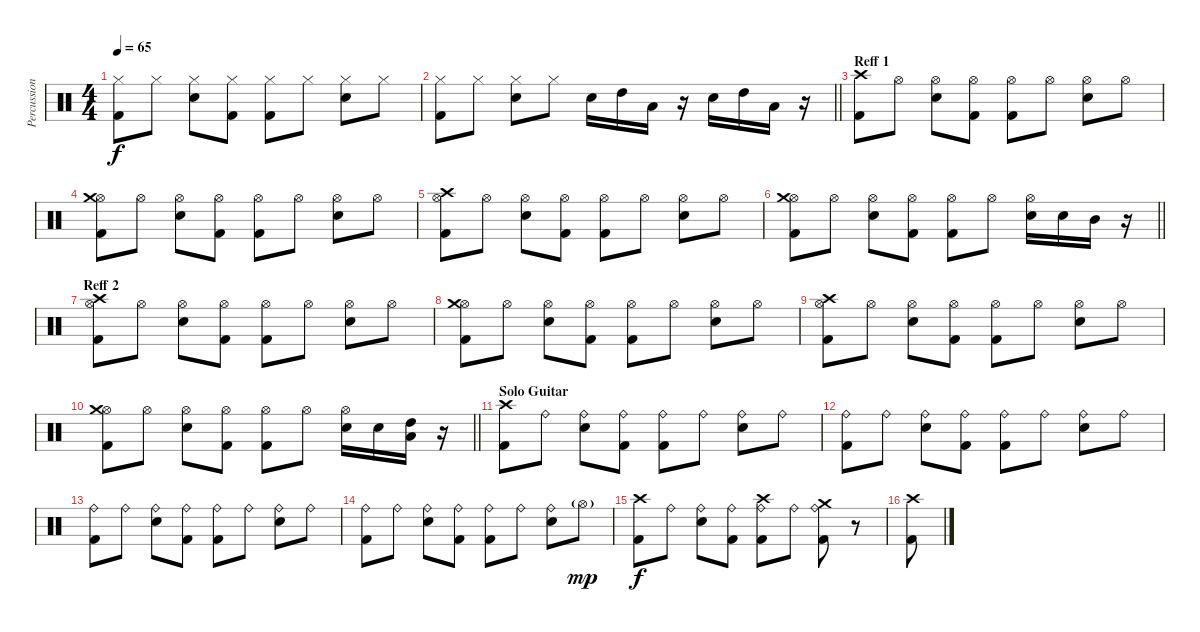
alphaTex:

\track ("Percussion" "Percussion") {instrument percussion}
\staff {score}
\articulation defaults
\ts (4 4)
\tempo 65
\clef neutral
\ks c
("Hi-Hat (closed)" "Kick (hit) 2").8{dy f} "Hi-Hat (closed)".8 ("Hi-Hat (closed)" "Electric Snare (hit)").8 ("Hi-Hat (closed)" "Kick (hit) 2").8 ("Hi-Hat (closed)" "Kick (hit) 2").8 "Hi-Hat (closed)".8 ("Hi-Hat (closed)" "Electric Snare (hit)").8 "Hi-Hat (closed)".8 |
\barLineRight lightlight
("Hi-Hat (closed)" "Kick (hit) 2").8 "Hi-Hat (closed)".8 ("Hi-Hat (closed)" "Electric Snare (hit)").8 "Hi-Hat (closed)".8 "Electric Snare (hit)".16 "High Tom (hit)".16 "Low Tom (hit)".16 r.16 "Electric Snare (hit)".16 "High Tom (hit)".16 "Low Tom (hit)".16 r.16 |
\section ("" "Reff 1")
("Crash high (hit)" "Kick (hit) 2").8 "Hi-Hat (open)".8 ("Hi-Hat (open)" "Electric Snare (hit)").8 ("Hi-Hat (open)" "Kick (hit) 2").8 ("Hi-Hat (open)" "Kick (hit) 2").8 "Hi-Hat (open)".8 ("Hi-Hat (open)" "Electric Snare (hit)").8 "Hi-Hat (open)".8 |
("Hi-Hat (open)" "Crash medium (hit)" "Kick (hit) 2").8 "Hi-Hat (open)".8 ("Hi-Hat (open)" "Electric Snare (hit)").8 ("Hi-Hat (open)" "Kick (hit) 2").8 ("Hi-Hat (open)" "Kick (hit) 2").8 "Hi-Hat (open)".8 ("Hi-Hat (open)" "Electric Snare (hit)").8 "Hi-Hat (open)".8 |
("Hi-Hat (open)" "Crash high (hit)" "Kick (hit) 2").8 "Hi-Hat (open)".8 ("Hi-Hat (open)" "Electric Snare (hit)").8 ("Hi-Hat (open)" "Kick (hit) 2").8 ("Hi-Hat (open)" "Kick (hit) 2").8 "Hi-Hat (open)".8 ("Hi-Hat (open)" "Electric Snare (hit)").8 "Hi-Hat (open)".8 |
\barLineRight lightlight
("Hi-Hat (open)" "Crash medium (hit)" "Kick (hit) 2").8 "Hi-Hat (open)".8 ("Hi-Hat (open)" "Electric Snare (hit)").8 ("Hi-Hat (open)" "Kick (hit) 2").8 ("Hi-Hat (open)" "Kick (hit) 2").8 "Hi-Hat (open)".8 ("Hi-Hat (open)" "Electric Snare (hit)").16 "Electric Snare (hit)".16 "Mid Tom (hit)".16 r.16 |
\section ("" "Reff 2")
("Hi-Hat (open)" "Crash high (hit)" "Kick (hit) 2").8 "Hi-Hat (open)".8 ("Hi-Hat (open)" "Electric Snare (hit)").8 ("Hi-Hat (open)" "Kick (hit) 2").8 ("Hi-Hat (open)" "Kick (hit) 2").8 "Hi-Hat (open)".8 ("Hi-Hat (open)" "Electric Snare (hit)").8 "Hi-Hat (open)".8 |
("Hi-Hat (open)" "Crash medium (hit)" "Kick (hit) 2").8 "Hi-Hat (open)".8 ("Hi-Hat (open)" "Electric Snare (hit)").8 ("Hi-Hat (open)" "Kick (hit) 2").8 ("Hi-Hat (open)" "Kick (hit) 2").8 "Hi-Hat (open)".8 ("Hi-Hat (open)" "Electric Snare (hit)").8 "Hi-Hat (open)".8 |
("Hi-Hat (open)" "Crash high (hit)" "Kick (hit) 2").8 "Hi-Hat (open)".8 ("Hi-Hat (open)" "Electric Snare (hit)").8 ("Hi-Hat (open)" "Kick (hit) 2").8 ("Hi-Hat (open)" "Kick (hit) 2").8 "Hi-Hat (open)".8 ("Hi-Hat (open)" "Electric Snare (hit)").8 "Hi-Hat (open)".8 |
\barLineRight lightlight
("Hi-Hat (open)" "Crash medium (hit)" "Kick (hit) 2").8 "Hi-Hat (open)".8 ("Hi-Hat (open)" "Electric Snare (hit)").8 ("Hi-Hat (open)" "Kick (hit) 2").8 ("Hi-Hat (open)" "Kick (hit) 2").8 "Hi-Hat (open)".8 ("Hi-Hat (open)" "Electric Snare (hit)").16 "Electric Snare (hit)".16 ("High Tom (hit)" "Low Tom (hit)").16 r.16 |
\section ("" "Solo Guitar")
("Crash high (hit)" "Kick (hit) 2").8 "Ride (bell)".8 ("Ride (bell)" "Electric Snare (hit)").8 ("Ride (bell)" "Kick (hit) 2").8 ("Ride (bell)" "Kick (hit) 2").8 "Ride (bell)".8 ("Ride (bell)" "Electric Snare (hit)").8 "Ride (bell)".8 |
("Ride (bell)" "Kick (hit) 2").8 "Ride (bell)".8 ("Ride (bell)" "Electric Snare (hit)").8 ("Ride (bell)" "Kick (hit) 2").8 ("Ride (bell)" "Kick (hit) 2").8 "Ride (bell)".8 ("Ride (bell)" "Electric Snare (hit)").8 "Ride (bell)".8 |
("Ride (bell)" "Kick (hit) 2").8 "Ride (bell)".8 ("Ride (bell)" "Electric Snare (hit)").8 ("Ride (bell)" "Kick (hit) 2").8 ("Ride (bell)" "Kick (hit) 2").8 "Ride (bell)".8 ("Ride (bell)" "Electric Snare (hit)").8 "Ride (bell)".8 |
("Ride (bell)" "Kick (hit) 2").8 "Ride (bell)".8 ("Ride (bell)" "Electric Snare (hit)").8 ("Ride (bell)" "Kick (hit) 2").8 ("Ride (bell)" "Kick (hit) 2").8 "Ride (bell)".8 ("Ride (bell)" "Electric Snare (hit)").8 "Hi-Hat (open)"{g}.8{dy mp} |
("Crash high (hit)" "Kick (hit) 2").8{dy f} "Ride (bell)".8 ("Ride (bell)" "Electric Snare (hit)").8 ("Ride (bell)" "Kick (hit) 2").8 ("Ride (bell)" "Crash high (hit)" "Kick (hit) 2").8 "Ride (bell)".8 ("Ride (bell)" "Crash medium (hit)" "Kick (hit) 2").8 r.8 |
("Crash high (hit)" "Kick (hit) 2").8
